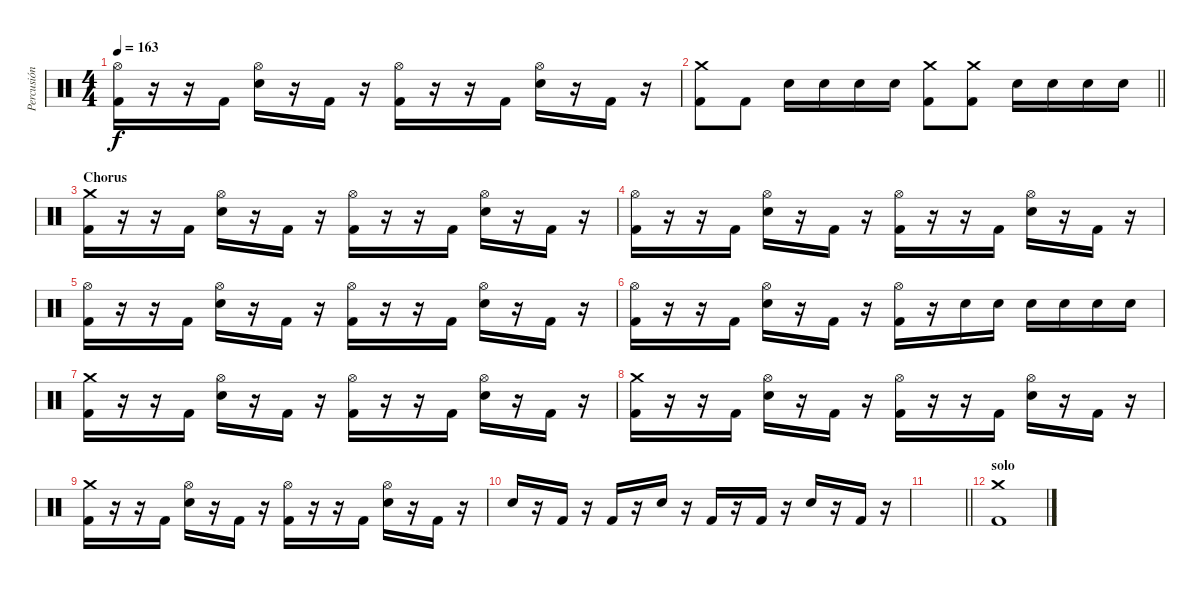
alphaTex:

\track ("Percusión" "Percusión") {instrument percussion}
\staff {score}
\articulation defaults
\ts (4 4)
\tempo 163
\clef neutral
\ks c
("Hi-Hat (open)" "Kick (hit) 2").16{dy f} r.16 r.16 "Kick (hit) 2".16 ("Hi-Hat (open)" "Snare (hit) 2").16 r.16 "Kick (hit) 2".16 r.16 ("Hi-Hat (open)" "Kick (hit) 2").16 r.16 r.16 "Kick (hit) 2".16 ("Hi-Hat (open)" "Snare (hit) 2").16 r.16 "Kick (hit) 2".16 r.16 |
\barLineRight lightlight
("Crash medium (hit)" "Kick (hit) 2").8 "Kick (hit) 2".8 "Snare (hit) 2".16 "Snare (hit) 2".16 "Snare (hit) 2".16 "Snare (hit) 2".16 ("Crash medium (hit)" "Kick (hit) 2").8 ("Crash medium (hit)" "Kick (hit) 2").8 "Snare (hit) 2".16 "Snare (hit) 2".16 "Snare (hit) 2".16 "Snare (hit) 2".16 |
\section ("" "Chorus")
("Crash medium (hit)" "Kick (hit) 2").16 r.16 r.16 "Kick (hit) 2".16 ("Hi-Hat (open)" "Snare (hit) 2").16 r.16 "Kick (hit) 2".16 r.16 ("Hi-Hat (open)" "Kick (hit) 2").16 r.16 r.16 "Kick (hit) 2".16 ("Hi-Hat (open)" "Snare (hit) 2").16 r.16 "Kick (hit) 2".16 r.16 |
("Hi-Hat (open)" "Kick (hit) 2").16 r.16 r.16 "Kick (hit) 2".16 ("Hi-Hat (open)" "Snare (hit) 2").16 r.16 "Kick (hit) 2".16 r.16 ("Hi-Hat (open)" "Kick (hit) 2").16 r.16 r.16 "Kick (hit) 2".16 ("Hi-Hat (open)" "Snare (hit) 2").16 r.16 "Kick (hit) 2".16 r.16 |
("Hi-Hat (open)" "Kick (hit) 2").16 r.16 r.16 "Kick (hit) 2".16 ("Hi-Hat (open)" "Snare (hit) 2").16 r.16 "Kick (hit) 2".16 r.16 ("Hi-Hat (open)" "Kick (hit) 2").16 r.16 r.16 "Kick (hit) 2".16 ("Hi-Hat (open)" "Snare (hit) 2").16 r.16 "Kick (hit) 2".16 r.16 |
("Hi-Hat (open)" "Kick (hit) 2").16 r.16 r.16 "Kick (hit) 2".16 ("Hi-Hat (open)" "Snare (hit) 2").16 r.16 "Kick (hit) 2".16 r.16 ("Hi-Hat (open)" "Kick (hit) 2").16 r.16 "Snare (hit) 2".16 "Snare (hit) 2".16 "Snare (hit) 2".16 "Snare (hit) 2".16 "Snare (hit) 2".16 "Snare (hit) 2".16 |
("Crash medium (hit)" "Kick (hit) 2").16 r.16 r.16 "Kick (hit) 2".16 ("Hi-Hat (open)" "Snare (hit) 2").16 r.16 "Kick (hit) 2".16 r.16 ("Hi-Hat (open)" "Kick (hit) 2").16 r.16 r.16 "Kick (hit) 2".16 ("Hi-Hat (open)" "Snare (hit) 2").16 r.16 "Kick (hit) 2".16 r.16 |
("Crash medium (hit)" "Kick (hit) 2").16 r.16 r.16 "Kick (hit) 2".16 ("Hi-Hat (open)" "Snare (hit) 2").16 r.16 "Kick (hit) 2".16 r.16 ("Hi-Hat (open)" "Kick (hit) 2").16 r.16 r.16 "Kick (hit) 2".16 ("Hi-Hat (open)" "Snare (hit) 2").16 r.16 "Kick (hit) 2".16 r.16 |
("Crash medium (hit)" "Kick (hit) 2").16 r.16 r.16 "Kick (hit) 2".16 ("Hi-Hat (open)" "Snare (hit) 2").16 r.16 "Kick (hit) 2".16 r.16 ("Hi-Hat (open)" "Kick (hit) 2").16 r.16 r.16 "Kick (hit) 2".16 ("Hi-Hat (open)" "Snare (hit) 2").16 r.16 "Kick (hit) 2".16 r.16 |
"Snare (hit) 2".16 r.16 "Kick (hit) 2".16 r.16 "Kick (hit) 2".16 r.16 "Snare (hit) 2".16 r.16 "Kick (hit) 2".16 r.16 "Kick (hit) 2".16 r.16 "Snare (hit) 2".16 r.16 "Kick (hit) 2".16 r.16 |
\barLineRight lightlight
|
\section ("" "solo")
("Crash medium (hit)" "Kick (hit) 2").1
